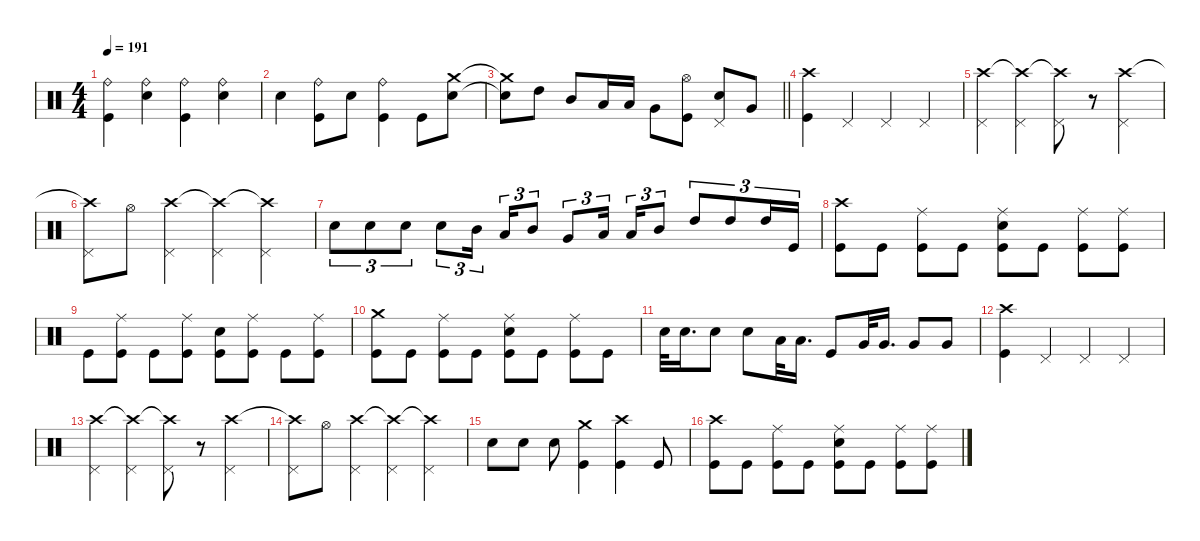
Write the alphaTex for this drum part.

\defaultSystemsLayout 4
\hideDynamics
\bracketExtendMode nobrackets
\singleTrackTrackNamePolicy hidden
\multiTrackTrackNamePolicy hidden
\firstSystemTrackNameMode fullname
\firstSystemTrackNameOrientation horizontal
\otherSystemsTrackNameOrientation horizontal
\track ("Drumkit" "drm.") {instrument percussion}
\staff {score}
\articulation defaults
\ts (4 4)
\tempo 191
\clef neutral
\ks c
("Kick (hit)" "Ride (bell)").4{dy f beam Down} ("Snare (hit) 2" "Ride (bell)").4{beam Down} ("Kick (hit)" "Ride (bell)").4{beam Down} ("Snare (hit) 2" "Ride (bell)").4{beam Down} |
"Snare (hit) 2".4{beam Down} ("Kick (hit)" "Ride (bell)").8{beam Down} "Snare (hit) 2".8{beam Down} ("Kick (hit)" "Ride (bell)").4{beam Down} "Kick (hit)".8{beam Down} ("Snare (hit) 2" "Crash medium (hit)").8{beam Down} |
\barLineRight lightlight
("Snare (hit) 2"{t} "Crash medium (hit)"{t}).8{beam Down} "High Tom (hit)".8{beam Down} "Mid Tom (hit)".8{beam Up} "Low Tom (hit)".16{beam Up} "Low Tom (hit)".16{beam Up} "Very Low Tom (hit)".8{beam Down} ("Kick (hit)" "Hi-Hat (open)").8{beam Down} ("Snare (hit) 2" "Pedal Hi-Hat (hit)").8{beam Up} "Very Low Tom (hit)".8{beam Up} |
("Crash high (hit)" "Kick (hit)").4{beam Down} "Pedal Hi-Hat (hit)".4{beam Up} "Pedal Hi-Hat (hit)".4{beam Up} "Pedal Hi-Hat (hit)".4{beam Up} |
("Pedal Hi-Hat (hit)" "Crash high (hit)").4{beam Down} ("Pedal Hi-Hat (hit)" "Crash high (hit)"{t}).4{beam Down} ("Pedal Hi-Hat (hit)" "Crash high (hit)"{t}).8{beam Down} r.8{beam Down} ("Pedal Hi-Hat (hit)" "Crash high (hit)").4{beam Down} |
("Pedal Hi-Hat (hit)" "Crash high (hit)"{t}).8{beam Down} "Hi-Hat (open)".8{beam Down} ("Pedal Hi-Hat (hit)" "Crash high (hit)").4{beam Down} ("Pedal Hi-Hat (hit)" "Crash high (hit)"{t}).4{beam Down} ("Pedal Hi-Hat (hit)" "Crash high (hit)"{t}).4{beam Down} |
"Snare (hit) 2".8{tu (3 2) beam Down} "Snare (hit) 2".8{tu (3 2) beam Down} "Snare (hit) 2".8{tu (3 2) beam Down} "Snare (hit) 2".8{tu (3 2) beam Down} "Mid Tom (hit)".16{tu (3 2) beam Down} "Low Tom (hit)".16{tu (3 2) beam Up} "Mid Tom (hit)".8{tu (3 2) beam Up} "Very Low Tom (hit)".8{tu (3 2) beam Up} "Low Tom (hit)".16{tu (3 2) beam Up} "Low Tom (hit)".16{tu (3 2) beam Up} "Mid Tom (hit)".8{tu (3 2) beam Up} "High Tom (hit)".8{tu (3 2) beam Up} "High Tom (hit)".8{tu (3 2) beam Up} "High Tom (hit)".16{tu (3 2) beam Up} "Kick (hit)".16{tu (3 2) beam Up} |
("Crash high (hit)" "Kick (hit)").8{beam Down} "Kick (hit)".8{beam Down} ("Ride (middle)" "Kick (hit)").8{dy mf beam Down} "Kick (hit)".8{dy f beam Down} ("Ride (middle)" "Snare (hit) 2" "Kick (hit)").8{beam Down} "Kick (hit)".8{beam Down} ("Ride (middle)" "Kick (hit)").8{beam Down} ("Ride (middle)" "Kick (hit)").8{beam Down} |
"Kick (hit)".8{beam Down} ("Ride (middle)" "Kick (hit)").8{beam Down} "Kick (hit)".8{beam Down} ("Ride (middle)" "Kick (hit)").8{beam Down} ("Snare (hit) 2" "Kick (hit)").8{beam Down} ("Ride (middle)" "Kick (hit)").8{beam Down} "Kick (hit)".8{beam Down} ("Ride (middle)" "Kick (hit)").8{beam Down} |
("Crash medium (hit)" "Kick (hit)").8{beam Down} "Kick (hit)".8{beam Down} ("Ride (middle)" "Kick (hit)").8{dy mf beam Down} "Kick (hit)".8{dy f beam Down} ("Ride (middle)" "Snare (hit) 2" "Kick (hit)").8{dy mf beam Down} "Kick (hit)".8{dy f beam Down} ("Ride (middle)" "Kick (hit)").8{dy mf beam Down} "Kick (hit)".8{dy f beam Down} |
"Snare (hit) 2".32{beam Down} "Snare (hit) 2".16{d beam Down} "Snare (hit) 2".8{beam Down} "Snare (hit) 2".8{beam Down} "Low Tom (hit)".32{beam Down} "Low Tom (hit)".16{d beam Down} "Kick (hit)".8{beam Up} "Very Low Tom (hit)".32{beam Up} "Very Low Tom (hit)".16{d beam Up} "Very Low Tom (hit)".8{beam Up} "Very Low Tom (hit)".8{beam Up} |
("Crash high (hit)" "Kick (hit)").4{beam Down} "Pedal Hi-Hat (hit)".4{beam Up} "Pedal Hi-Hat (hit)".4{beam Up} "Pedal Hi-Hat (hit)".4{beam Up} |
("Pedal Hi-Hat (hit)" "Crash high (hit)").4{beam Down} ("Pedal Hi-Hat (hit)" "Crash high (hit)"{t}).4{beam Down} ("Pedal Hi-Hat (hit)" "Crash high (hit)"{t}).8{beam Down} r.8{beam Down} ("Pedal Hi-Hat (hit)" "Crash high (hit)").4{beam Down} |
("Pedal Hi-Hat (hit)" "Crash high (hit)"{t}).8{beam Down} "Hi-Hat (open)".8{beam Down} ("Pedal Hi-Hat (hit)" "Crash high (hit)").4{beam Down} ("Pedal Hi-Hat (hit)" "Crash high (hit)"{t}).4{beam Down} ("Pedal Hi-Hat (hit)" "Crash high (hit)"{t}).4{beam Down} |
"Snare (hit) 2".8{beam Down} "Snare (hit) 2".8{beam Down} "Snare (hit) 2".8{beam Down} ("Kick (hit)" "Crash medium (hit)").4{beam Down} ("Crash high (hit)" "Kick (hit)").4{dy mf beam Down} "Kick (hit)".8{dy f beam Up} |
("Crash high (hit)" "Kick (hit)").8{beam Down} "Kick (hit)".8{beam Down} ("Ride (middle)" "Kick (hit)").8{dy mf beam Down} "Kick (hit)".8{dy f beam Down} ("Ride (middle)" "Snare (hit) 2" "Kick (hit)").8{beam Down} "Kick (hit)".8{beam Down} ("Ride (middle)" "Kick (hit)").8{beam Down} ("Ride (middle)" "Kick (hit)").8{beam Down}
